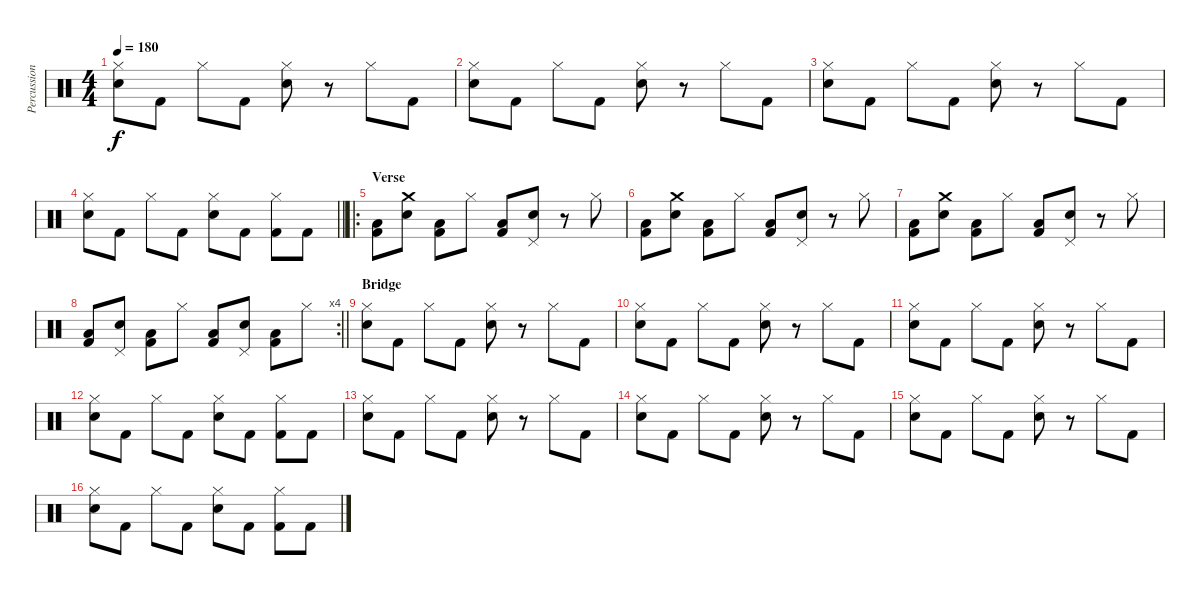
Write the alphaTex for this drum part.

\track ("Percussion" "Percussion") {instrument percussion}
\staff {score}
\articulation defaults
\ts (4 4)
\tempo 180
\clef neutral
\ks c
("Hi-Hat (closed)" "Electric Snare (hit)").8{dy f} "Kick (hit) 2".8 "Hi-Hat (closed)".8 "Kick (hit) 2".8 ("Hi-Hat (closed)" "Electric Snare (hit)").8 r.8 "Hi-Hat (closed)".8 "Kick (hit) 2".8 |
("Hi-Hat (closed)" "Electric Snare (hit)").8 "Kick (hit) 2".8 "Hi-Hat (closed)".8 "Kick (hit) 2".8 ("Hi-Hat (closed)" "Electric Snare (hit)").8 r.8 "Hi-Hat (closed)".8 "Kick (hit) 2".8 |
("Hi-Hat (closed)" "Electric Snare (hit)").8 "Kick (hit) 2".8 "Hi-Hat (closed)".8 "Kick (hit) 2".8 ("Hi-Hat (closed)" "Electric Snare (hit)").8 r.8 "Hi-Hat (closed)".8 "Kick (hit) 2".8 |
\barLineRight lightlight
("Hi-Hat (closed)" "Electric Snare (hit)").8 "Kick (hit) 2".8 "Hi-Hat (closed)".8 "Kick (hit) 2".8 ("Hi-Hat (closed)" "Electric Snare (hit)").8 "Kick (hit) 2".8 ("Hi-Hat (closed)" "Kick (hit) 2").8 "Kick (hit) 2".8 |
\ro
\section ("" "Verse")
("Low Floor Tom (hit)" "Kick (hit) 2").8 ("Crash medium (hit)" "Electric Snare (hit)").8 ("Low Floor Tom (hit)" "Kick (hit) 2").8 "Hi-Hat (closed)".8 ("Low Floor Tom (hit)" "Kick (hit) 2").8 ("Pedal Hi-Hat (hit)" "Electric Snare (hit)").8 r.8 "Hi-Hat (closed)".8 |
("Low Floor Tom (hit)" "Kick (hit) 2").8 ("Crash medium (hit)" "Electric Snare (hit)").8 ("Low Floor Tom (hit)" "Kick (hit) 2").8 "Hi-Hat (closed)".8 ("Low Floor Tom (hit)" "Kick (hit) 2").8 ("Pedal Hi-Hat (hit)" "Electric Snare (hit)").8 r.8 "Hi-Hat (closed)".8 |
("Low Floor Tom (hit)" "Kick (hit) 2").8 ("Crash medium (hit)" "Electric Snare (hit)").8 ("Low Floor Tom (hit)" "Kick (hit) 2").8 "Hi-Hat (closed)".8 ("Low Floor Tom (hit)" "Kick (hit) 2").8 ("Pedal Hi-Hat (hit)" "Electric Snare (hit)").8 r.8 "Hi-Hat (closed)".8 |
\rc 4
\barLineRight lightlight
("Low Floor Tom (hit)" "Kick (hit) 2").8 ("Pedal Hi-Hat (hit)" "Electric Snare (hit)").8 ("Low Floor Tom (hit)" "Kick (hit) 2").8 "Hi-Hat (closed)".8 ("Low Floor Tom (hit)" "Kick (hit) 2").8 ("Pedal Hi-Hat (hit)" "Electric Snare (hit)").8 ("Low Floor Tom (hit)" "Kick (hit) 2").8 "Hi-Hat (closed)".8 |
\section ("" "Bridge")
("Hi-Hat (closed)" "Electric Snare (hit)").8 "Kick (hit) 2".8 "Hi-Hat (closed)".8 "Kick (hit) 2".8 ("Hi-Hat (closed)" "Electric Snare (hit)").8 r.8 "Hi-Hat (closed)".8 "Kick (hit) 2".8 |
("Hi-Hat (closed)" "Electric Snare (hit)").8 "Kick (hit) 2".8 "Hi-Hat (closed)".8 "Kick (hit) 2".8 ("Hi-Hat (closed)" "Electric Snare (hit)").8 r.8 "Hi-Hat (closed)".8 "Kick (hit) 2".8 |
("Hi-Hat (closed)" "Electric Snare (hit)").8 "Kick (hit) 2".8 "Hi-Hat (closed)".8 "Kick (hit) 2".8 ("Hi-Hat (closed)" "Electric Snare (hit)").8 r.8 "Hi-Hat (closed)".8 "Kick (hit) 2".8 |
("Hi-Hat (closed)" "Electric Snare (hit)").8 "Kick (hit) 2".8 "Hi-Hat (closed)".8 "Kick (hit) 2".8 ("Hi-Hat (closed)" "Electric Snare (hit)").8 "Kick (hit) 2".8 ("Hi-Hat (closed)" "Kick (hit) 2").8 "Kick (hit) 2".8 |
("Hi-Hat (closed)" "Electric Snare (hit)").8 "Kick (hit) 2".8 "Hi-Hat (closed)".8 "Kick (hit) 2".8 ("Hi-Hat (closed)" "Electric Snare (hit)").8 r.8 "Hi-Hat (closed)".8 "Kick (hit) 2".8 |
("Hi-Hat (closed)" "Electric Snare (hit)").8 "Kick (hit) 2".8 "Hi-Hat (closed)".8 "Kick (hit) 2".8 ("Hi-Hat (closed)" "Electric Snare (hit)").8 r.8 "Hi-Hat (closed)".8 "Kick (hit) 2".8 |
("Hi-Hat (closed)" "Electric Snare (hit)").8 "Kick (hit) 2".8 "Hi-Hat (closed)".8 "Kick (hit) 2".8 ("Hi-Hat (closed)" "Electric Snare (hit)").8 r.8 "Hi-Hat (closed)".8 "Kick (hit) 2".8 |
("Hi-Hat (closed)" "Electric Snare (hit)").8 "Kick (hit) 2".8 "Hi-Hat (closed)".8 "Kick (hit) 2".8 ("Hi-Hat (closed)" "Electric Snare (hit)").8 "Kick (hit) 2".8 ("Hi-Hat (closed)" "Kick (hit) 2").8 "Kick (hit) 2".8
